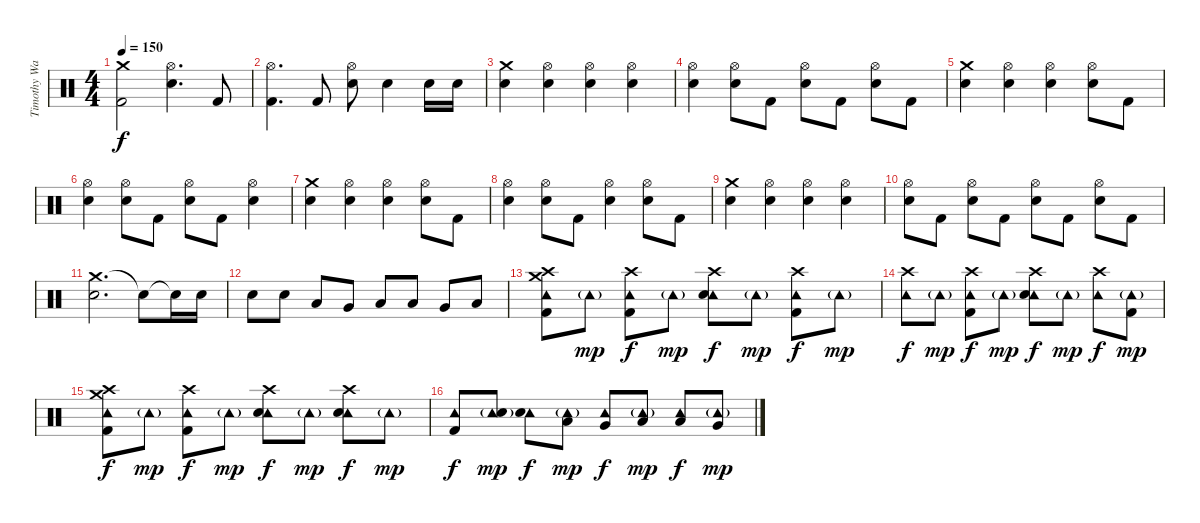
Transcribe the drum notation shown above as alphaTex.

\track ("Timothy Watts" "Timothy Wa") {instrument percussion}
\staff {score}
\articulation defaults
\ts (4 4)
\tempo 150
\clef neutral
\ks c
("Crash medium (hit)" "Kick (hit) 2").2{dy f} ("Hi-Hat (open)" "Electric Snare (hit)").4{d} "Kick (hit) 2".8 |
("Hi-Hat (open)" "Kick (hit) 2").4{d} "Kick (hit) 2".8 ("Hi-Hat (open)" "Electric Snare (hit)").8 "Electric Snare (hit)".4 "Electric Snare (hit)".16 "Electric Snare (hit)".16 |
("Crash medium (hit)" "Electric Snare (hit)").4 ("Hi-Hat (open)" "Electric Snare (hit)").4 ("Hi-Hat (open)" "Electric Snare (hit)").4 ("Hi-Hat (open)" "Electric Snare (hit)").4 |
("Hi-Hat (open)" "Electric Snare (hit)").4 ("Hi-Hat (open)" "Electric Snare (hit)").8 "Kick (hit) 2".8 ("Hi-Hat (open)" "Electric Snare (hit)").8 "Kick (hit) 2".8 ("Hi-Hat (open)" "Electric Snare (hit)").8 "Kick (hit) 2".8 |
("Crash medium (hit)" "Electric Snare (hit)").4 ("Hi-Hat (open)" "Electric Snare (hit)").4 ("Hi-Hat (open)" "Electric Snare (hit)").4 ("Hi-Hat (open)" "Electric Snare (hit)").8 "Kick (hit) 2".8 |
("Hi-Hat (open)" "Electric Snare (hit)").4 ("Hi-Hat (open)" "Electric Snare (hit)").8 "Kick (hit) 2".8 ("Hi-Hat (open)" "Electric Snare (hit)").8 "Kick (hit) 2".8 ("Hi-Hat (open)" "Electric Snare (hit)").4 |
("Crash medium (hit)" "Electric Snare (hit)").4 ("Hi-Hat (open)" "Electric Snare (hit)").4 ("Hi-Hat (open)" "Electric Snare (hit)").4 ("Hi-Hat (open)" "Electric Snare (hit)").8 "Kick (hit) 2".8 |
("Hi-Hat (open)" "Electric Snare (hit)").4 ("Hi-Hat (open)" "Electric Snare (hit)").8 "Kick (hit) 2".8 ("Hi-Hat (open)" "Electric Snare (hit)").4 ("Hi-Hat (open)" "Electric Snare (hit)").8 "Kick (hit) 2".8 |
("Crash medium (hit)" "Electric Snare (hit)").4 ("Hi-Hat (open)" "Electric Snare (hit)").4 ("Hi-Hat (open)" "Electric Snare (hit)").4 ("Hi-Hat (open)" "Electric Snare (hit)").4 |
("Hi-Hat (open)" "Electric Snare (hit)").8 "Kick (hit) 2".8 ("Hi-Hat (open)" "Electric Snare (hit)").8 "Kick (hit) 2".8 ("Hi-Hat (open)" "Electric Snare (hit)").8 "Kick (hit) 2".8 ("Hi-Hat (open)" "Electric Snare (hit)").8 "Kick (hit) 2".8 |
("Crash medium (hit)" "Electric Snare (hit)").2{d} "Snare (hit)"{t}.8 "Snare (hit)"{t}.16 "Electric Snare (hit)".16 |
"Electric Snare (hit)".8 "Electric Snare (hit)".8 "Low Tom (hit)".8 "Very Low Tom (hit)".8 "Low Floor Tom (hit)".8 "Low Tom (hit)".8 "Very Low Tom (hit)".8 "Low Floor Tom (hit)".8 |
("Tambourine (hit)" "Crash medium (hit)" "Crash high (hit)" "Kick (hit) 2").8 "Tambourine (hit)"{g}.8{dy mp} ("Tambourine (hit)" "Crash high (hit)" "Kick (hit) 2").8{dy f} "Tambourine (hit)"{g}.8{dy mp} ("Tambourine (hit)" "Crash high (hit)" "Electric Snare (hit)").8{dy f} "Tambourine (hit)"{g}.8{dy mp} ("Tambourine (hit)" "Crash high (hit)" "Kick (hit) 2").8{dy f} "Tambourine (hit)"{g}.8{dy mp} |
("Tambourine (hit)" "Crash high (hit)").8{dy f} "Tambourine (hit)"{g}.8{dy mp} ("Tambourine (hit)" "Crash high (hit)" "Kick (hit) 2").8{dy f} "Tambourine (hit)"{g}.8{dy mp} ("Tambourine (hit)" "Crash high (hit)" "Electric Snare (hit)").8{dy f} "Tambourine (hit)"{g}.8{dy mp} ("Tambourine (hit)" "Crash high (hit)").8{dy f} ("Tambourine (hit)"{g} "Kick (hit) 2").8{dy mp} |
("Tambourine (hit)" "Crash medium (hit)" "Crash high (hit)" "Kick (hit) 2").8{dy f} "Tambourine (hit)"{g}.8{dy mp} ("Tambourine (hit)" "Crash high (hit)" "Kick (hit) 2").8{dy f} "Tambourine (hit)"{g}.8{dy mp} ("Tambourine (hit)" "Crash high (hit)" "Electric Snare (hit)").8{dy f} "Tambourine (hit)"{g}.8{dy mp} ("Tambourine (hit)" "Crash high (hit)" "Electric Snare (hit)").8{dy f} "Tambourine (hit)"{g}.8{dy mp} |
("Tambourine (hit)" "Kick (hit) 2").8{dy f} ("Tambourine (hit)"{g} "Electric Snare (hit)").8{dy mp} ("Tambourine (hit)" "Electric Snare (hit)").8{dy f} ("Tambourine (hit)"{g} "Low Tom (hit)").8{dy mp} ("Tambourine (hit)" "Very Low Tom (hit)").8{dy f} ("Tambourine (hit)"{g} "Low Floor Tom (hit)").8{dy mp} ("Tambourine (hit)" "Low Tom (hit)").8{dy f} ("Tambourine (hit)"{g} "Very Low Tom (hit)").8{dy mp}
